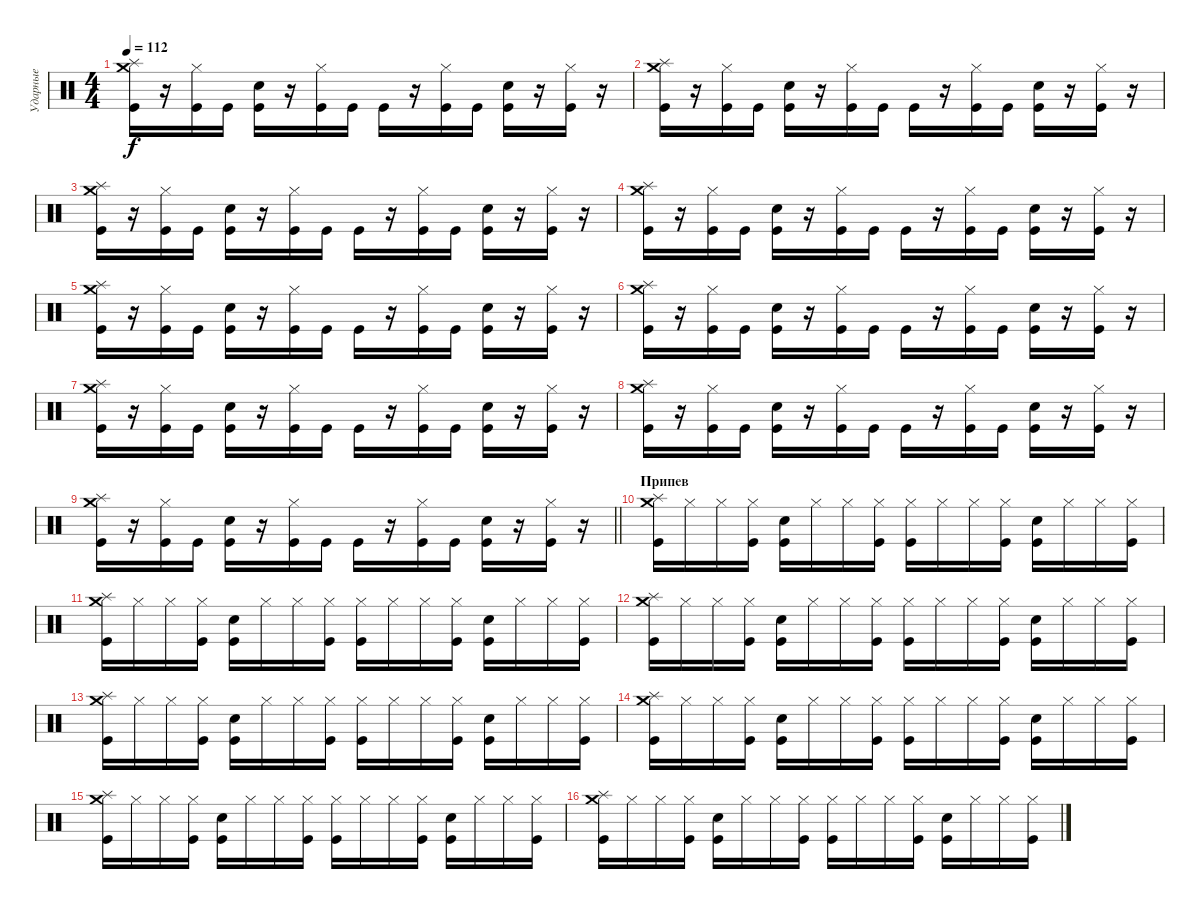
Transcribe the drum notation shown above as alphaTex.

\track ("Ударные" "Ударные") {instrument percussion}
\staff {score}
\articulation defaults
\ts (4 4)
\tempo 112
\clef neutral
\ks c
("Splash (hit)" "Crash medium (hit)" "Kick (hit)").16{dy f} r.16 ("Hi-Hat (closed)" "Kick (hit)").16 "Kick (hit)".16 ("Snare (hit) 2" "Kick (hit)").16 r.16 ("Hi-Hat (closed)" "Kick (hit)").16 "Kick (hit)".16 "Kick (hit)".16 r.16 ("Hi-Hat (closed)" "Kick (hit)").16 "Kick (hit)".16 ("Snare (hit) 2" "Kick (hit)").16 r.16 ("Hi-Hat (closed)" "Kick (hit)").16 r.16 |
("Splash (hit)" "Crash medium (hit)" "Kick (hit)").16 r.16 ("Hi-Hat (closed)" "Kick (hit)").16 "Kick (hit)".16 ("Snare (hit) 2" "Kick (hit)").16 r.16 ("Hi-Hat (closed)" "Kick (hit)").16 "Kick (hit)".16 "Kick (hit)".16 r.16 ("Hi-Hat (closed)" "Kick (hit)").16 "Kick (hit)".16 ("Snare (hit) 2" "Kick (hit)").16 r.16 ("Hi-Hat (closed)" "Kick (hit)").16 r.16 |
("Splash (hit)" "Crash medium (hit)" "Kick (hit)").16 r.16 ("Hi-Hat (closed)" "Kick (hit)").16 "Kick (hit)".16 ("Snare (hit) 2" "Kick (hit)").16 r.16 ("Hi-Hat (closed)" "Kick (hit)").16 "Kick (hit)".16 "Kick (hit)".16 r.16 ("Hi-Hat (closed)" "Kick (hit)").16 "Kick (hit)".16 ("Snare (hit) 2" "Kick (hit)").16 r.16 ("Hi-Hat (closed)" "Kick (hit)").16 r.16 |
("Splash (hit)" "Crash medium (hit)" "Kick (hit)").16 r.16 ("Hi-Hat (closed)" "Kick (hit)").16 "Kick (hit)".16 ("Snare (hit) 2" "Kick (hit)").16 r.16 ("Hi-Hat (closed)" "Kick (hit)").16 "Kick (hit)".16 "Kick (hit)".16 r.16 ("Hi-Hat (closed)" "Kick (hit)").16 "Kick (hit)".16 ("Snare (hit) 2" "Kick (hit)").16 r.16 ("Hi-Hat (closed)" "Kick (hit)").16 r.16 |
("Splash (hit)" "Crash medium (hit)" "Kick (hit)").16 r.16 ("Hi-Hat (closed)" "Kick (hit)").16 "Kick (hit)".16 ("Snare (hit) 2" "Kick (hit)").16 r.16 ("Hi-Hat (closed)" "Kick (hit)").16 "Kick (hit)".16 "Kick (hit)".16 r.16 ("Hi-Hat (closed)" "Kick (hit)").16 "Kick (hit)".16 ("Snare (hit) 2" "Kick (hit)").16 r.16 ("Hi-Hat (closed)" "Kick (hit)").16 r.16 |
("Splash (hit)" "Crash medium (hit)" "Kick (hit)").16 r.16 ("Hi-Hat (closed)" "Kick (hit)").16 "Kick (hit)".16 ("Snare (hit) 2" "Kick (hit)").16 r.16 ("Hi-Hat (closed)" "Kick (hit)").16 "Kick (hit)".16 "Kick (hit)".16 r.16 ("Hi-Hat (closed)" "Kick (hit)").16 "Kick (hit)".16 ("Snare (hit) 2" "Kick (hit)").16 r.16 ("Hi-Hat (closed)" "Kick (hit)").16 r.16 |
("Splash (hit)" "Crash medium (hit)" "Kick (hit)").16 r.16 ("Hi-Hat (closed)" "Kick (hit)").16 "Kick (hit)".16 ("Snare (hit) 2" "Kick (hit)").16 r.16 ("Hi-Hat (closed)" "Kick (hit)").16 "Kick (hit)".16 "Kick (hit)".16 r.16 ("Hi-Hat (closed)" "Kick (hit)").16 "Kick (hit)".16 ("Snare (hit) 2" "Kick (hit)").16 r.16 ("Hi-Hat (closed)" "Kick (hit)").16 r.16 |
("Splash (hit)" "Crash medium (hit)" "Kick (hit)").16 r.16 ("Hi-Hat (closed)" "Kick (hit)").16 "Kick (hit)".16 ("Snare (hit) 2" "Kick (hit)").16 r.16 ("Hi-Hat (closed)" "Kick (hit)").16 "Kick (hit)".16 "Kick (hit)".16 r.16 ("Hi-Hat (closed)" "Kick (hit)").16 "Kick (hit)".16 ("Snare (hit) 2" "Kick (hit)").16 r.16 ("Hi-Hat (closed)" "Kick (hit)").16 r.16 |
\barLineRight lightlight
("Splash (hit)" "Crash medium (hit)" "Kick (hit)").16 r.16 ("Hi-Hat (closed)" "Kick (hit)").16 "Kick (hit)".16 ("Snare (hit) 2" "Kick (hit)").16 r.16 ("Hi-Hat (closed)" "Kick (hit)").16 "Kick (hit)".16 "Kick (hit)".16 r.16 ("Hi-Hat (closed)" "Kick (hit)").16 "Kick (hit)".16 ("Snare (hit) 2" "Kick (hit)").16 r.16 ("Hi-Hat (closed)" "Kick (hit)").16 r.16 |
\section ("" "Припев")
("Splash (hit)" "Crash medium (hit)" "Kick (hit)").16 "Hi-Hat (closed)".16 "Hi-Hat (closed)".16 ("Hi-Hat (closed)" "Kick (hit)").16 ("Snare (hit) 2" "Kick (hit)").16 "Hi-Hat (closed)".16 "Hi-Hat (closed)".16 ("Hi-Hat (closed)" "Kick (hit)").16 ("Hi-Hat (closed)" "Kick (hit)").16 "Hi-Hat (closed)".16 "Hi-Hat (closed)".16 ("Hi-Hat (closed)" "Kick (hit)").16 ("Snare (hit) 2" "Kick (hit)").16 "Hi-Hat (closed)".16 "Hi-Hat (closed)".16 ("Hi-Hat (closed)" "Kick (hit)").16 |
("Splash (hit)" "Crash medium (hit)" "Kick (hit)").16 "Hi-Hat (closed)".16 "Hi-Hat (closed)".16 ("Hi-Hat (closed)" "Kick (hit)").16 ("Snare (hit) 2" "Kick (hit)").16 "Hi-Hat (closed)".16 "Hi-Hat (closed)".16 ("Hi-Hat (closed)" "Kick (hit)").16 ("Hi-Hat (closed)" "Kick (hit)").16 "Hi-Hat (closed)".16 "Hi-Hat (closed)".16 ("Hi-Hat (closed)" "Kick (hit)").16 ("Snare (hit) 2" "Kick (hit)").16 "Hi-Hat (closed)".16 "Hi-Hat (closed)".16 ("Hi-Hat (closed)" "Kick (hit)").16 |
("Splash (hit)" "Crash medium (hit)" "Kick (hit)").16 "Hi-Hat (closed)".16 "Hi-Hat (closed)".16 ("Hi-Hat (closed)" "Kick (hit)").16 ("Snare (hit) 2" "Kick (hit)").16 "Hi-Hat (closed)".16 "Hi-Hat (closed)".16 ("Hi-Hat (closed)" "Kick (hit)").16 ("Hi-Hat (closed)" "Kick (hit)").16 "Hi-Hat (closed)".16 "Hi-Hat (closed)".16 ("Hi-Hat (closed)" "Kick (hit)").16 ("Snare (hit) 2" "Kick (hit)").16 "Hi-Hat (closed)".16 "Hi-Hat (closed)".16 ("Hi-Hat (closed)" "Kick (hit)").16 |
("Splash (hit)" "Crash medium (hit)" "Kick (hit)").16 "Hi-Hat (closed)".16 "Hi-Hat (closed)".16 ("Hi-Hat (closed)" "Kick (hit)").16 ("Snare (hit) 2" "Kick (hit)").16 "Hi-Hat (closed)".16 "Hi-Hat (closed)".16 ("Hi-Hat (closed)" "Kick (hit)").16 ("Hi-Hat (closed)" "Kick (hit)").16 "Hi-Hat (closed)".16 "Hi-Hat (closed)".16 ("Hi-Hat (closed)" "Kick (hit)").16 ("Snare (hit) 2" "Kick (hit)").16 "Hi-Hat (closed)".16 "Hi-Hat (closed)".16 ("Hi-Hat (closed)" "Kick (hit)").16 |
("Splash (hit)" "Crash medium (hit)" "Kick (hit)").16 "Hi-Hat (closed)".16 "Hi-Hat (closed)".16 ("Hi-Hat (closed)" "Kick (hit)").16 ("Snare (hit) 2" "Kick (hit)").16 "Hi-Hat (closed)".16 "Hi-Hat (closed)".16 ("Hi-Hat (closed)" "Kick (hit)").16 ("Hi-Hat (closed)" "Kick (hit)").16 "Hi-Hat (closed)".16 "Hi-Hat (closed)".16 ("Hi-Hat (closed)" "Kick (hit)").16 ("Snare (hit) 2" "Kick (hit)").16 "Hi-Hat (closed)".16 "Hi-Hat (closed)".16 ("Hi-Hat (closed)" "Kick (hit)").16 |
("Splash (hit)" "Crash medium (hit)" "Kick (hit)").16 "Hi-Hat (closed)".16 "Hi-Hat (closed)".16 ("Hi-Hat (closed)" "Kick (hit)").16 ("Snare (hit) 2" "Kick (hit)").16 "Hi-Hat (closed)".16 "Hi-Hat (closed)".16 ("Hi-Hat (closed)" "Kick (hit)").16 ("Hi-Hat (closed)" "Kick (hit)").16 "Hi-Hat (closed)".16 "Hi-Hat (closed)".16 ("Hi-Hat (closed)" "Kick (hit)").16 ("Snare (hit) 2" "Kick (hit)").16 "Hi-Hat (closed)".16 "Hi-Hat (closed)".16 ("Hi-Hat (closed)" "Kick (hit)").16 |
("Splash (hit)" "Crash medium (hit)" "Kick (hit)").16 "Hi-Hat (closed)".16 "Hi-Hat (closed)".16 ("Hi-Hat (closed)" "Kick (hit)").16 ("Snare (hit) 2" "Kick (hit)").16 "Hi-Hat (closed)".16 "Hi-Hat (closed)".16 ("Hi-Hat (closed)" "Kick (hit)").16 ("Hi-Hat (closed)" "Kick (hit)").16 "Hi-Hat (closed)".16 "Hi-Hat (closed)".16 ("Hi-Hat (closed)" "Kick (hit)").16 ("Snare (hit) 2" "Kick (hit)").16 "Hi-Hat (closed)".16 "Hi-Hat (closed)".16 ("Hi-Hat (closed)" "Kick (hit)").16
